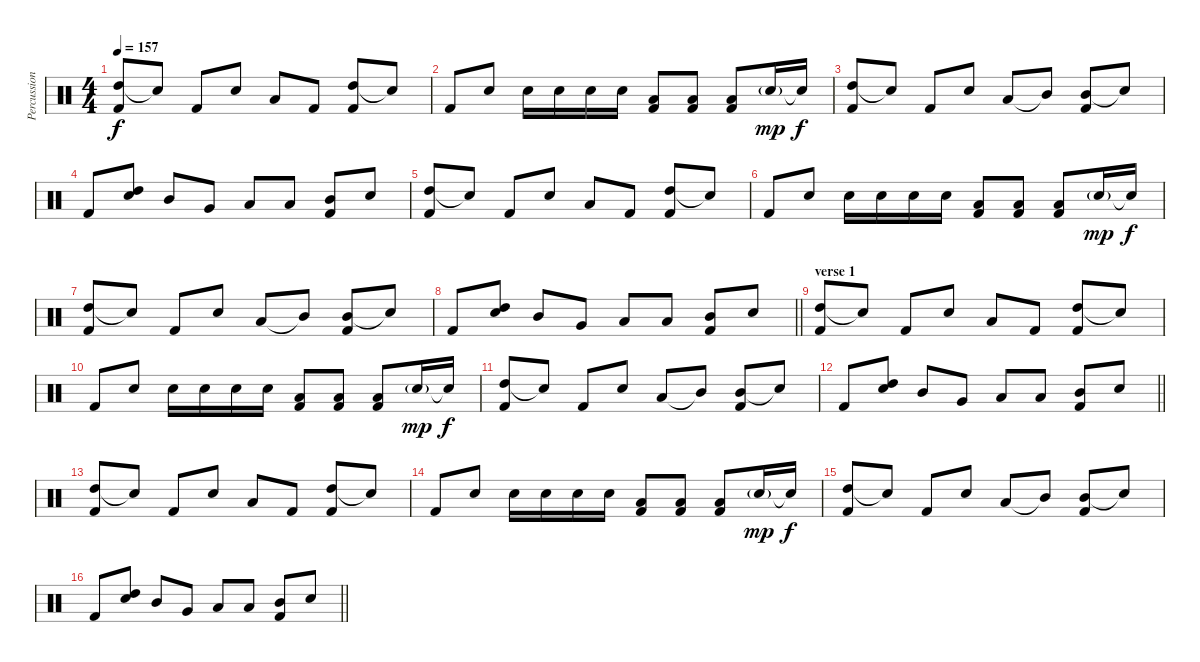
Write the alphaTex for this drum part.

\track ("Percussion" "Percussion") {instrument percussion}
\staff {score}
\articulation defaults
\ts (4 4)
\tempo 157
\clef neutral
\ks c
("High Tom (hit)" "Kick (hit) 2").8{dy f} "Snare (hit)"{t}.8 "Kick (hit) 2".8 "Electric Snare (hit)".8 "Low Tom (hit)".8 "Kick (hit) 2".8 ("High Tom (hit)" "Kick (hit) 2").8 "Snare (hit)"{t}.8 |
"Kick (hit) 2".8 "Electric Snare (hit)".8 "Electric Snare (hit)".16 "Electric Snare (hit)".16 "Electric Snare (hit)".16 "Electric Snare (hit)".16 ("Low Tom (hit)" "Kick (hit) 2").8 ("Low Tom (hit)" "Kick (hit) 2").8 ("Low Tom (hit)" "Kick (hit) 2").8 "Electric Snare (hit)"{g}.16{dy mp} "Snare (hit)"{t}.16{dy f} |
("High Tom (hit)" "Kick (hit) 2").8 "Snare (hit)"{t}.8 "Kick (hit) 2".8 "Electric Snare (hit)".8 "Low Tom (hit)".8 "Mid Tom (hit)"{t}.8 ("Mid Tom (hit)" "Kick (hit) 2").8 "Snare (hit)"{t}.8 |
"Kick (hit) 2".8 ("High Tom (hit)" "Electric Snare (hit)").8 "Mid Tom (hit)".8 "Very Low Tom (hit)".8 "Low Tom (hit)".8 "Low Floor Tom (hit)".8 ("Mid Tom (hit)" "Kick (hit) 2").8 "Electric Snare (hit)".8 |
("High Tom (hit)" "Kick (hit) 2").8 "Snare (hit)"{t}.8 "Kick (hit) 2".8 "Electric Snare (hit)".8 "Low Tom (hit)".8 "Kick (hit) 2".8 ("High Tom (hit)" "Kick (hit) 2").8 "Snare (hit)"{t}.8 |
"Kick (hit) 2".8 "Electric Snare (hit)".8 "Electric Snare (hit)".16 "Electric Snare (hit)".16 "Electric Snare (hit)".16 "Electric Snare (hit)".16 ("Low Tom (hit)" "Kick (hit) 2").8 ("Low Tom (hit)" "Kick (hit) 2").8 ("Low Tom (hit)" "Kick (hit) 2").8 "Electric Snare (hit)"{g}.16{dy mp} "Snare (hit)"{t}.16{dy f} |
("High Tom (hit)" "Kick (hit) 2").8 "Snare (hit)"{t}.8 "Kick (hit) 2".8 "Electric Snare (hit)".8 "Low Tom (hit)".8 "Mid Tom (hit)"{t}.8 ("Mid Tom (hit)" "Kick (hit) 2").8 "Snare (hit)"{t}.8 |
\barLineRight lightlight "Kick (hit) 2".8
("High Tom (hit)" "Electric Snare (hit)").8 "Mid Tom (hit)".8 "Very Low Tom (hit)".8 "Low Tom (hit)".8 "Low Floor Tom (hit)".8 ("Mid Tom (hit)" "Kick (hit) 2").8 "Electric Snare (hit)".8 |
\section ("" "verse 1")
("High Tom (hit)" "Kick (hit) 2").8 "Snare (hit)"{t}.8 "Kick (hit) 2".8 "Electric Snare (hit)".8 "Low Tom (hit)".8 "Kick (hit) 2".8 ("High Tom (hit)" "Kick (hit) 2").8 "Snare (hit)"{t}.8 |
"Kick (hit) 2".8 "Electric Snare (hit)".8 "Electric Snare (hit)".16 "Electric Snare (hit)".16 "Electric Snare (hit)".16 "Electric Snare (hit)".16 ("Low Tom (hit)" "Kick (hit) 2").8 ("Low Tom (hit)" "Kick (hit) 2").8 ("Low Tom (hit)" "Kick (hit) 2").8 "Electric Snare (hit)"{g}.16{dy mp} "Snare (hit)"{t}.16{dy f} |
("High Tom (hit)" "Kick (hit) 2").8 "Snare (hit)"{t}.8 "Kick (hit) 2".8 "Electric Snare (hit)".8 "Low Tom (hit)".8 "Mid Tom (hit)"{t}.8 ("Mid Tom (hit)" "Kick (hit) 2").8 "Snare (hit)"{t}.8 |
\barLineRight lightlight "Kick (hit) 2".8
("High Tom (hit)" "Electric Snare (hit)").8 "Mid Tom (hit)".8 "Very Low Tom (hit)".8 "Low Tom (hit)".8 "Low Floor Tom (hit)".8 ("Mid Tom (hit)" "Kick (hit) 2").8 "Electric Snare (hit)".8 |
("High Tom (hit)" "Kick (hit) 2").8 "Snare (hit)"{t}.8 "Kick (hit) 2".8 "Electric Snare (hit)".8 "Low Tom (hit)".8 "Kick (hit) 2".8 ("High Tom (hit)" "Kick (hit) 2").8 "Snare (hit)"{t}.8 |
"Kick (hit) 2".8 "Electric Snare (hit)".8 "Electric Snare (hit)".16 "Electric Snare (hit)".16 "Electric Snare (hit)".16 "Electric Snare (hit)".16 ("Low Tom (hit)" "Kick (hit) 2").8 ("Low Tom (hit)" "Kick (hit) 2").8 ("Low Tom (hit)" "Kick (hit) 2").8 "Electric Snare (hit)"{g}.16{dy mp} "Snare (hit)"{t}.16{dy f} |
("High Tom (hit)" "Kick (hit) 2").8 "Snare (hit)"{t}.8 "Kick (hit) 2".8 "Electric Snare (hit)".8 "Low Tom (hit)".8 "Mid Tom (hit)"{t}.8 ("Mid Tom (hit)" "Kick (hit) 2").8 "Snare (hit)"{t}.8 |
\barLineRight lightlight "Kick (hit) 2".8
("High Tom (hit)" "Electric Snare (hit)").8 "Mid Tom (hit)".8 "Very Low Tom (hit)".8 "Low Tom (hit)".8 "Low Floor Tom (hit)".8 ("Mid Tom (hit)" "Kick (hit) 2").8 "Electric Snare (hit)".8
